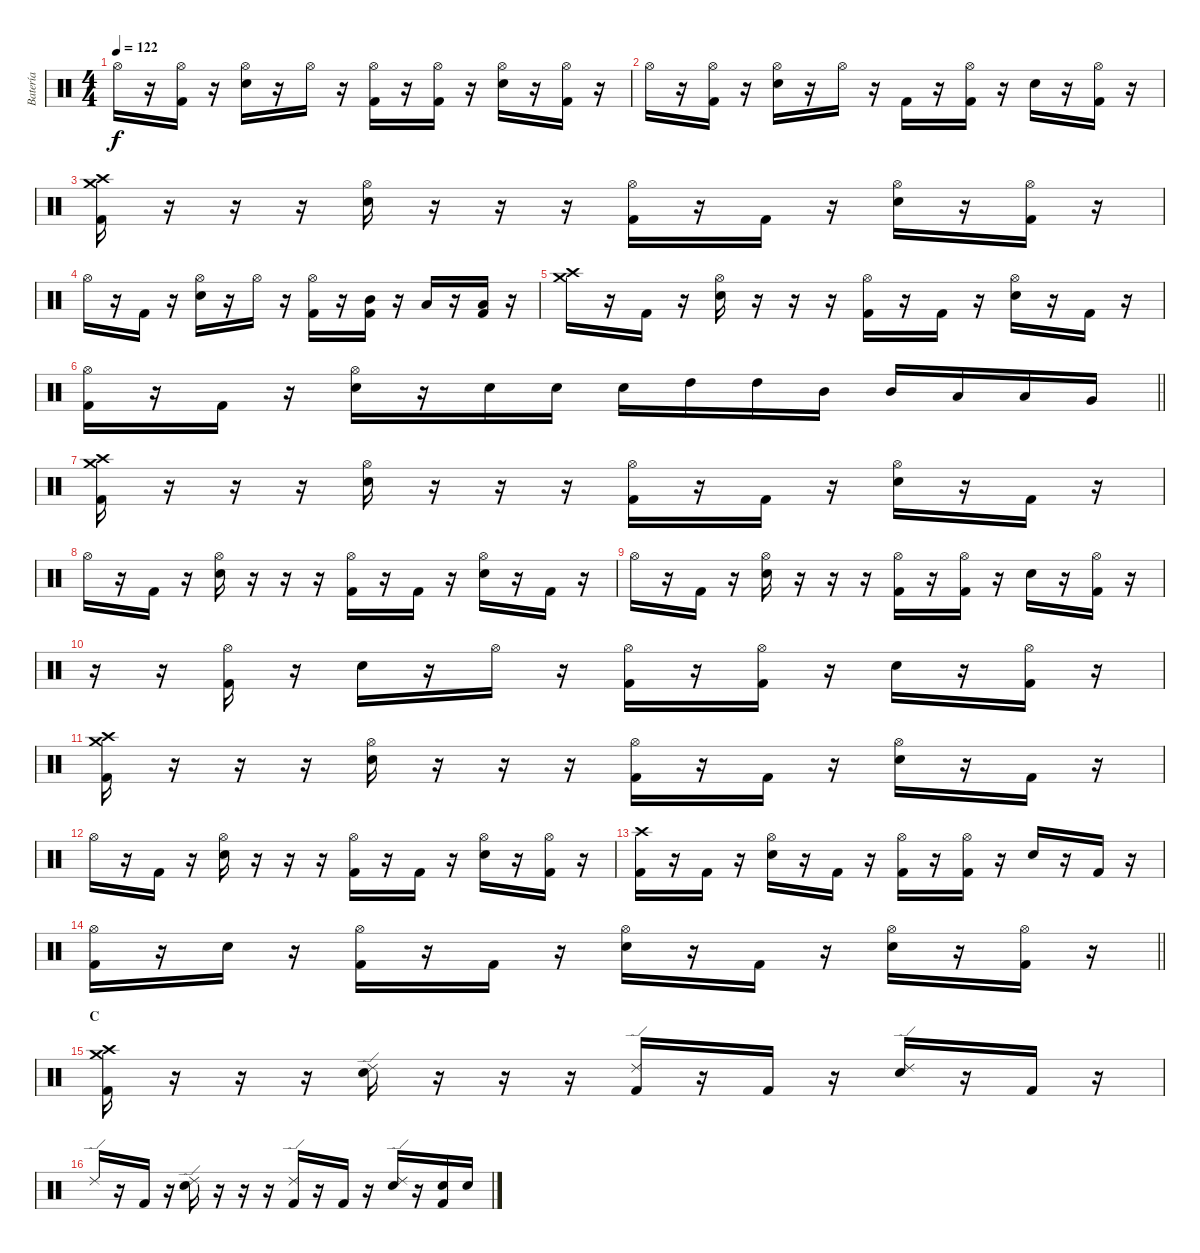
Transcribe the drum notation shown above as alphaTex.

\track ("Batería" "Batería") {instrument percussion}
\staff {score}
\articulation defaults
\ts (4 4)
\tempo 122
\clef neutral
\ks c "Hi-Hat (open)".16{dy f}
r.16 ("Kick (hit) 2" "Hi-Hat (open)").16 r.16 ("Electric Snare (hit)" "Hi-Hat (open)").16 r.16 "Hi-Hat (open)".16 r.16 ("Kick (hit) 2" "Hi-Hat (open)").16 r.16 ("Kick (hit) 2" "Hi-Hat (open)").16 r.16 ("Electric Snare (hit)" "Hi-Hat (open)").16 r.16 ("Kick (hit) 2" "Hi-Hat (open)").16 r.16 |
"Hi-Hat (open)".16 r.16 ("Kick (hit) 2" "Hi-Hat (open)").16 r.16 ("Electric Snare (hit)" "Hi-Hat (open)").16 r.16 "Hi-Hat (open)".16 r.16 "Kick (hit) 2".16 r.16 ("Kick (hit) 2" "Hi-Hat (open)").16 r.16 "Electric Snare (hit)".16 r.16 ("Kick (hit) 2" "Hi-Hat (open)").16 r.16 |
("Crash high (hit)" "Kick (hit) 2" "Crash medium (hit)").16 r.16 r.16 r.16 ("Electric Snare (hit)" "Hi-Hat (open)").16 r.16 r.16 r.16 ("Kick (hit) 2" "Hi-Hat (open)").16 r.16 "Kick (hit) 2".16 r.16 ("Electric Snare (hit)" "Hi-Hat (open)").16 r.16 ("Kick (hit) 2" "Hi-Hat (open)").16 r.16 |
"Hi-Hat (open)".16 r.16 "Kick (hit) 2".16 r.16 ("Electric Snare (hit)" "Hi-Hat (open)").16 r.16 "Hi-Hat (open)".16 r.16 ("Kick (hit) 2" "Hi-Hat (open)").16 r.16 ("Mid Tom (hit)" "Kick (hit) 2").16 r.16 "Low Tom (hit)".16 r.16 ("Low Tom (hit)" "Kick (hit) 2").16 r.16 |
("Crash medium (hit)" "Crash high (hit)").16 r.16 "Kick (hit) 2".16 r.16 ("Electric Snare (hit)" "Hi-Hat (open)").16 r.16 r.16 r.16 ("Kick (hit) 2" "Hi-Hat (open)").16 r.16 "Kick (hit) 2".16 r.16 ("Electric Snare (hit)" "Hi-Hat (open)").16 r.16 "Kick (hit) 2".16 r.16 |
\barLineRight lightlight
("Kick (hit) 2" "Hi-Hat (open)").16 r.16 "Kick (hit) 2".16 r.16 ("Electric Snare (hit)" "Hi-Hat (open)").16 r.16 "Electric Snare (hit)".16 "Electric Snare (hit)".16 "Electric Snare (hit)".16 "High Tom (hit)".16 "High Tom (hit)".16 "Mid Tom (hit)".16 "Mid Tom (hit)".16 "Low Tom (hit)".16 "Low Tom (hit)".16 "Very Low Tom (hit)".16 |
("Crash high (hit)" "Kick (hit) 2" "Crash medium (hit)").16 r.16 r.16 r.16 ("Electric Snare (hit)" "Hi-Hat (open)").16 r.16 r.16 r.16 ("Kick (hit) 2" "Hi-Hat (open)").16 r.16 "Kick (hit) 2".16 r.16 ("Electric Snare (hit)" "Hi-Hat (open)").16 r.16 "Kick (hit) 2".16 r.16 |
"Hi-Hat (open)".16 r.16 "Kick (hit) 2".16 r.16 ("Electric Snare (hit)" "Hi-Hat (open)").16 r.16 r.16 r.16 ("Kick (hit) 2" "Hi-Hat (open)").16 r.16 "Kick (hit) 2".16 r.16 ("Electric Snare (hit)" "Hi-Hat (open)").16 r.16 "Kick (hit) 2".16 r.16 |
"Hi-Hat (open)".16 r.16 "Kick (hit) 2".16 r.16 ("Electric Snare (hit)" "Hi-Hat (open)").16 r.16 r.16 r.16 ("Kick (hit) 2" "Hi-Hat (open)").16 r.16 ("Kick (hit) 2" "Hi-Hat (open)").16 r.16 "Electric Snare (hit)".16 r.16 ("Kick (hit) 2" "Hi-Hat (open)").16 r.16 |
r.16 r.16 ("Kick (hit) 2" "Hi-Hat (open)").16 r.16 "Electric Snare (hit)".16 r.16 "Hi-Hat (open)".16 r.16 ("Kick (hit) 2" "Hi-Hat (open)").16 r.16 ("Kick (hit) 2" "Hi-Hat (open)").16 r.16 "Electric Snare (hit)".16 r.16 ("Kick (hit) 2" "Hi-Hat (open)").16 r.16 |
("Crash high (hit)" "Kick (hit) 2" "Crash medium (hit)").16 r.16 r.16 r.16 ("Electric Snare (hit)" "Hi-Hat (open)").16 r.16 r.16 r.16 ("Kick (hit) 2" "Hi-Hat (open)").16 r.16 "Kick (hit) 2".16 r.16 ("Electric Snare (hit)" "Hi-Hat (open)").16 r.16 "Kick (hit) 2".16 r.16 |
"Hi-Hat (open)".16 r.16 "Kick (hit) 2".16 r.16 ("Electric Snare (hit)" "Hi-Hat (open)").16 r.16 r.16 r.16 ("Kick (hit) 2" "Hi-Hat (open)").16 r.16 "Kick (hit) 2".16 r.16 ("Electric Snare (hit)" "Hi-Hat (open)").16 r.16 ("Kick (hit) 2" "Hi-Hat (open)").16 r.16 |
("Kick (hit) 2" "Crash high (hit)").16 r.16 "Kick (hit) 2".16 r.16 ("Electric Snare (hit)" "Hi-Hat (open)").16 r.16 "Kick (hit) 2".16 r.16 ("Kick (hit) 2" "Hi-Hat (open)").16 r.16 ("Kick (hit) 2" "Hi-Hat (open)").16 r.16 "Electric Snare (hit)".16 r.16 "Kick (hit) 2".16 r.16 |
\barLineRight lightlight
("Kick (hit) 2" "Hi-Hat (open)").16 r.16 "Electric Snare (hit)".16 r.16 ("Kick (hit) 2" "Hi-Hat (open)").16 r.16 "Kick (hit) 2".16 r.16 ("Electric Snare (hit)" "Hi-Hat (open)").16 r.16 "Kick (hit) 2".16 r.16 ("Electric Snare (hit)" "Hi-Hat (open)").16 r.16 ("Kick (hit) 2" "Hi-Hat (open)").16 r.16 |
\section ("" "C")
("Crash medium (hit)" "Kick (hit) 2" "Crash high (hit)").16 r.16 r.16 r.16 ("Electric Snare (hit)" "Ride (edge) 2").16 r.16 r.16 r.16 ("Kick (hit) 2" "Ride (edge) 2").16 r.16 "Kick (hit) 2".16 r.16 ("Electric Snare (hit)" "Ride (edge) 2").16 r.16 "Kick (hit) 2".16 r.16 |
"Ride (edge) 2".16 r.16 "Kick (hit) 2".16 r.16 ("Electric Snare (hit)" "Ride (edge) 2").16 r.16 r.16 r.16 ("Kick (hit) 2" "Ride (edge) 2").16 r.16 "Kick (hit) 2".16 r.16 ("Electric Snare (hit)" "Ride (edge) 2").16 r.16 ("Electric Snare (hit)" "Kick (hit) 2").16 "Electric Snare (hit)".16
